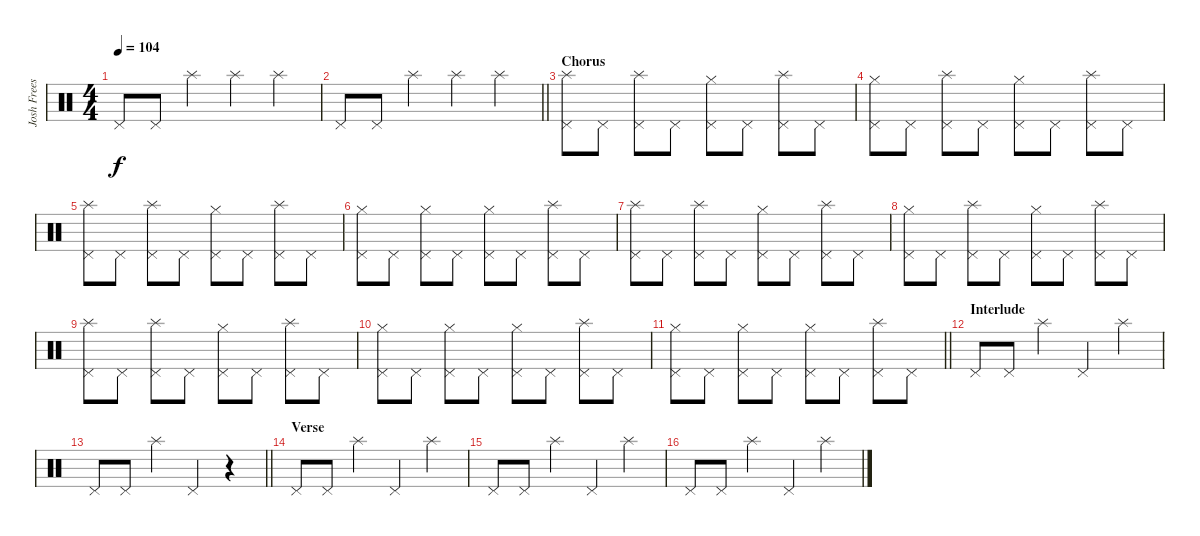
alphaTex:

\track ("Josh Freese (Studio Drummer)" "Josh Frees") {instrument percussion}
\staff {score}
\articulation defaults
\ts (4 4)
\tempo 104
\clef neutral
\ks c "Pedal Hi-Hat (hit)".8{dy f} "Pedal Hi-Hat (hit)".8 "Splash (hit)".4 "Splash (hit)".4 "Splash (hit)".4
|
\barLineRight lightlight "Pedal Hi-Hat (hit)".8 "Pedal Hi-Hat (hit)".8 "Splash (hit)".4 "Splash (hit)".4 "Splash (hit)".4
|
\section ("" "Chorus")
("Splash (hit)" "Pedal Hi-Hat (hit)").8 "Pedal Hi-Hat (hit)".8 ("Splash (hit)" "Pedal Hi-Hat (hit)").8 "Pedal Hi-Hat (hit)".8 ("Hi-Hat (closed)" "Pedal Hi-Hat (hit)").8 "Pedal Hi-Hat (hit)".8 ("Splash (hit)" "Pedal Hi-Hat (hit)").8 "Pedal Hi-Hat (hit)".8 |
("Hi-Hat (closed)" "Pedal Hi-Hat (hit)").8 "Pedal Hi-Hat (hit)".8 ("Splash (hit)" "Pedal Hi-Hat (hit)").8 "Pedal Hi-Hat (hit)".8 ("Hi-Hat (closed)" "Pedal Hi-Hat (hit)").8 "Pedal Hi-Hat (hit)".8 ("Splash (hit)" "Pedal Hi-Hat (hit)").8 "Pedal Hi-Hat (hit)".8 |
("Splash (hit)" "Pedal Hi-Hat (hit)").8 "Pedal Hi-Hat (hit)".8 ("Splash (hit)" "Pedal Hi-Hat (hit)").8 "Pedal Hi-Hat (hit)".8 ("Hi-Hat (closed)" "Pedal Hi-Hat (hit)").8 "Pedal Hi-Hat (hit)".8 ("Splash (hit)" "Pedal Hi-Hat (hit)").8 "Pedal Hi-Hat (hit)".8 |
("Hi-Hat (closed)" "Pedal Hi-Hat (hit)").8 "Pedal Hi-Hat (hit)".8 ("Hi-Hat (closed)" "Pedal Hi-Hat (hit)").8 "Pedal Hi-Hat (hit)".8 ("Hi-Hat (closed)" "Pedal Hi-Hat (hit)").8 "Pedal Hi-Hat (hit)".8 ("Splash (hit)" "Pedal Hi-Hat (hit)").8 "Pedal Hi-Hat (hit)".8 |
("Splash (hit)" "Pedal Hi-Hat (hit)").8 "Pedal Hi-Hat (hit)".8 ("Splash (hit)" "Pedal Hi-Hat (hit)").8 "Pedal Hi-Hat (hit)".8 ("Hi-Hat (closed)" "Pedal Hi-Hat (hit)").8 "Pedal Hi-Hat (hit)".8 ("Splash (hit)" "Pedal Hi-Hat (hit)").8 "Pedal Hi-Hat (hit)".8 |
("Hi-Hat (closed)" "Pedal Hi-Hat (hit)").8 "Pedal Hi-Hat (hit)".8 ("Splash (hit)" "Pedal Hi-Hat (hit)").8 "Pedal Hi-Hat (hit)".8 ("Hi-Hat (closed)" "Pedal Hi-Hat (hit)").8 "Pedal Hi-Hat (hit)".8 ("Splash (hit)" "Pedal Hi-Hat (hit)").8 "Pedal Hi-Hat (hit)".8 |
("Splash (hit)" "Pedal Hi-Hat (hit)").8 "Pedal Hi-Hat (hit)".8 ("Splash (hit)" "Pedal Hi-Hat (hit)").8 "Pedal Hi-Hat (hit)".8 ("Hi-Hat (closed)" "Pedal Hi-Hat (hit)").8 "Pedal Hi-Hat (hit)".8 ("Splash (hit)" "Pedal Hi-Hat (hit)").8 "Pedal Hi-Hat (hit)".8 |
("Hi-Hat (closed)" "Pedal Hi-Hat (hit)").8 "Pedal Hi-Hat (hit)".8 ("Hi-Hat (closed)" "Pedal Hi-Hat (hit)").8 "Pedal Hi-Hat (hit)".8 ("Hi-Hat (closed)" "Pedal Hi-Hat (hit)").8 "Pedal Hi-Hat (hit)".8 ("Splash (hit)" "Pedal Hi-Hat (hit)").8 "Pedal Hi-Hat (hit)".8 |
\barLineRight lightlight
("Hi-Hat (closed)" "Pedal Hi-Hat (hit)").8 "Pedal Hi-Hat (hit)".8 ("Hi-Hat (closed)" "Pedal Hi-Hat (hit)").8 "Pedal Hi-Hat (hit)".8 ("Hi-Hat (closed)" "Pedal Hi-Hat (hit)").8 "Pedal Hi-Hat (hit)".8 ("Splash (hit)" "Pedal Hi-Hat (hit)").8 "Pedal Hi-Hat (hit)".8 |
\section ("" "Interlude")
"Pedal Hi-Hat (hit)".8 "Pedal Hi-Hat (hit)".8 "Splash (hit)".4 "Pedal Hi-Hat (hit)".4 "Splash (hit)".4 |
\barLineRight lightlight "Pedal Hi-Hat (hit)".8 "Pedal Hi-Hat (hit)".8 "Splash (hit)".4 "Pedal Hi-Hat (hit)".4
r.4 |
\section ("" "Verse")
"Pedal Hi-Hat (hit)".8 "Pedal Hi-Hat (hit)".8 "Splash (hit)".4 "Pedal Hi-Hat (hit)".4 "Splash (hit)".4 |
"Pedal Hi-Hat (hit)".8 "Pedal Hi-Hat (hit)".8 "Splash (hit)".4 "Pedal Hi-Hat (hit)".4 "Splash (hit)".4 |
"Pedal Hi-Hat (hit)".8 "Pedal Hi-Hat (hit)".8 "Splash (hit)".4 "Pedal Hi-Hat (hit)".4 "Splash (hit)".4
